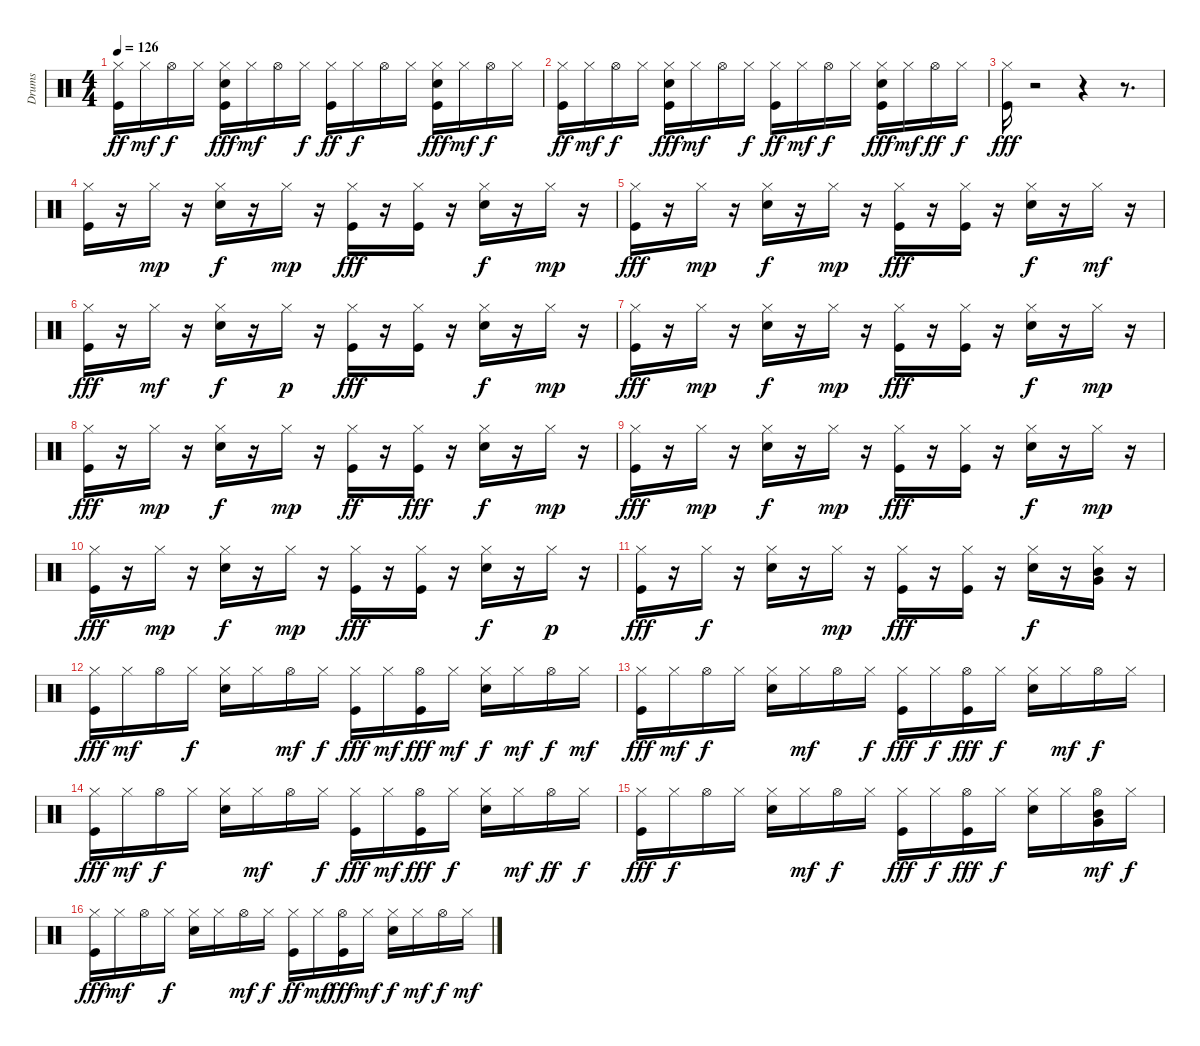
\track ("Drums" "Drums") {instrument percussion}
\staff {score}
\articulation defaults
\ts (4 4)
\tempo 126
\clef neutral
\ks c
("Kick (hit)" "Hi-Hat (closed)").16{dy ff} "Hi-Hat (closed)".16{dy mf} "Hi-Hat (open)".16{dy f} "Hi-Hat (closed)".16 ("Kick (hit)" "Electric Snare (hit)" "Hi-Hat (closed)").16{dy fff} "Hi-Hat (closed)".16{dy mf} "Hi-Hat (open)".16 "Hi-Hat (closed)".16{dy f} ("Kick (hit)" "Hi-Hat (closed)").16{dy ff} "Hi-Hat (closed)".16{dy f} "Hi-Hat (open)".16 "Hi-Hat (closed)".16 ("Kick (hit)" "Electric Snare (hit)" "Hi-Hat (closed)").16{dy fff} "Hi-Hat (closed)".16{dy mf} "Hi-Hat (open)".16{dy f} "Hi-Hat (closed)".16 |
("Kick (hit)" "Hi-Hat (closed)").16{dy ff} "Hi-Hat (closed)".16{dy mf} "Hi-Hat (open)".16{dy f} "Hi-Hat (closed)".16 ("Kick (hit)" "Electric Snare (hit)" "Hi-Hat (closed)").16{dy fff} "Hi-Hat (closed)".16{dy mf} "Hi-Hat (open)".16 "Hi-Hat (closed)".16{dy f} ("Kick (hit)" "Hi-Hat (closed)").16{dy ff} "Hi-Hat (closed)".16{dy mf} "Hi-Hat (open)".16{dy f} "Hi-Hat (closed)".16 ("Kick (hit)" "Electric Snare (hit)" "Hi-Hat (closed)").16{dy fff} "Hi-Hat (closed)".16{dy mf} "Hi-Hat (open)".16{dy ff} "Hi-Hat (closed)".16{dy f} |
("Kick (hit)" "Hi-Hat (closed)").16{dy fff} r.2 r.4 r.8{d} |
("Kick (hit)" "Hi-Hat (closed)").16 r.16 "Hi-Hat (closed)".16{dy mp} r.16 ("Electric Snare (hit)" "Hi-Hat (closed)").16{dy f} r.16 "Hi-Hat (closed)".16{dy mp} r.16 ("Kick (hit)" "Hi-Hat (closed)").16{dy fff} r.16 ("Kick (hit)" "Hi-Hat (closed)").16 r.16 ("Electric Snare (hit)" "Hi-Hat (closed)").16{dy f} r.16 "Hi-Hat (closed)".16{dy mp} r.16 |
("Kick (hit)" "Hi-Hat (closed)").16{dy fff} r.16 "Hi-Hat (closed)".16{dy mp} r.16 ("Electric Snare (hit)" "Hi-Hat (closed)").16{dy f} r.16 "Hi-Hat (closed)".16{dy mp} r.16 ("Kick (hit)" "Hi-Hat (closed)").16{dy fff} r.16 ("Kick (hit)" "Hi-Hat (closed)").16 r.16 ("Electric Snare (hit)" "Hi-Hat (closed)").16{dy f} r.16 "Hi-Hat (closed)".16{dy mf} r.16 |
("Kick (hit)" "Hi-Hat (closed)").16{dy fff} r.16 "Hi-Hat (closed)".16{dy mf} r.16 ("Electric Snare (hit)" "Hi-Hat (closed)").16{dy f} r.16 "Hi-Hat (closed)".16{dy p} r.16 ("Kick (hit)" "Hi-Hat (closed)").16{dy fff} r.16 ("Kick (hit)" "Hi-Hat (closed)").16 r.16 ("Electric Snare (hit)" "Hi-Hat (closed)").16{dy f} r.16 "Hi-Hat (closed)".16{dy mp} r.16 |
("Kick (hit)" "Hi-Hat (closed)").16{dy fff} r.16 "Hi-Hat (closed)".16{dy mp} r.16 ("Electric Snare (hit)" "Hi-Hat (closed)").16{dy f} r.16 "Hi-Hat (closed)".16{dy mp} r.16 ("Kick (hit)" "Hi-Hat (closed)").16{dy fff} r.16 ("Kick (hit)" "Hi-Hat (closed)").16 r.16 ("Electric Snare (hit)" "Hi-Hat (closed)").16{dy f} r.16 "Hi-Hat (closed)".16{dy mp} r.16 |
("Kick (hit)" "Hi-Hat (closed)").16{dy fff} r.16 "Hi-Hat (closed)".16{dy mp} r.16 ("Electric Snare (hit)" "Hi-Hat (closed)").16{dy f} r.16 "Hi-Hat (closed)".16{dy mp} r.16 ("Kick (hit)" "Hi-Hat (closed)").16{dy ff} r.16 ("Kick (hit)" "Hi-Hat (closed)").16{dy fff} r.16 ("Electric Snare (hit)" "Hi-Hat (closed)").16{dy f} r.16 "Hi-Hat (closed)".16{dy mp} r.16 |
("Kick (hit)" "Hi-Hat (closed)").16{dy fff} r.16 "Hi-Hat (closed)".16{dy mp} r.16 ("Electric Snare (hit)" "Hi-Hat (closed)").16{dy f} r.16 "Hi-Hat (closed)".16{dy mp} r.16 ("Kick (hit)" "Hi-Hat (closed)").16{dy fff} r.16 ("Kick (hit)" "Hi-Hat (closed)").16 r.16 ("Electric Snare (hit)" "Hi-Hat (closed)").16{dy f} r.16 "Hi-Hat (closed)".16{dy mp} r.16 |
("Kick (hit)" "Hi-Hat (closed)").16{dy fff} r.16 "Hi-Hat (closed)".16{dy mp} r.16 ("Electric Snare (hit)" "Hi-Hat (closed)").16{dy f} r.16 "Hi-Hat (closed)".16{dy mp} r.16 ("Kick (hit)" "Hi-Hat (closed)").16{dy fff} r.16 ("Kick (hit)" "Hi-Hat (closed)").16 r.16 ("Electric Snare (hit)" "Hi-Hat (closed)").16{dy f} r.16 "Hi-Hat (closed)".16{dy p} r.16 |
("Kick (hit)" "Hi-Hat (closed)").16{dy fff} r.16 "Hi-Hat (closed)".16{dy f} r.16 ("Electric Snare (hit)" "Hi-Hat (closed)").16 r.16 "Hi-Hat (closed)".16{dy mp} r.16 ("Kick (hit)" "Hi-Hat (closed)").16{dy fff} r.16 ("Kick (hit)" "Hi-Hat (closed)").16 r.16 ("Electric Snare (hit)" "Hi-Hat (closed)").16{dy f} r.16 ("Hi-Hat (closed)" "Very Low Tom (hit)" "Mid Tom (hit)").16 r.16 |
("Kick (hit)" "Hi-Hat (closed)").16{dy fff} "Hi-Hat (closed)".16{dy mf} "Hi-Hat (open)".16 "Hi-Hat (closed)".16{dy f} ("Electric Snare (hit)" "Hi-Hat (closed)").16 "Hi-Hat (closed)".16 "Hi-Hat (open)".16{dy mf} "Hi-Hat (closed)".16{dy f} ("Kick (hit)" "Hi-Hat (closed)").16{dy fff} "Hi-Hat (closed)".16{dy mf} ("Kick (hit)" "Hi-Hat (open)").16{dy fff} "Hi-Hat (closed)".16{dy mf} ("Electric Snare (hit)" "Hi-Hat (closed)").16{dy f} "Hi-Hat (closed)".16{dy mf} "Hi-Hat (open)".16{dy f} "Hi-Hat (closed)".16{dy mf} |
("Kick (hit)" "Hi-Hat (closed)").16{dy fff} "Hi-Hat (closed)".16{dy mf} "Hi-Hat (open)".16{dy f} "Hi-Hat (closed)".16 ("Electric Snare (hit)" "Hi-Hat (closed)").16 "Hi-Hat (closed)".16{dy mf} "Hi-Hat (open)".16 "Hi-Hat (closed)".16{dy f} ("Kick (hit)" "Hi-Hat (closed)").16{dy fff} "Hi-Hat (closed)".16{dy f} ("Kick (hit)" "Hi-Hat (open)").16{dy fff} "Hi-Hat (closed)".16{dy f} ("Electric Snare (hit)" "Hi-Hat (closed)").16 "Hi-Hat (closed)".16{dy mf} "Hi-Hat (open)".16{dy f} "Hi-Hat (closed)".16 |
("Kick (hit)" "Hi-Hat (closed)").16{dy fff} "Hi-Hat (closed)".16{dy mf} "Hi-Hat (open)".16{dy f} "Hi-Hat (closed)".16 ("Electric Snare (hit)" "Hi-Hat (closed)").16 "Hi-Hat (closed)".16{dy mf} "Hi-Hat (open)".16 "Hi-Hat (closed)".16{dy f} ("Kick (hit)" "Hi-Hat (closed)").16{dy fff} "Hi-Hat (closed)".16{dy mf} ("Kick (hit)" "Hi-Hat (open)").16{dy fff} "Hi-Hat (closed)".16{dy f} ("Electric Snare (hit)" "Hi-Hat (closed)").16 "Hi-Hat (closed)".16{dy mf} "Hi-Hat (open)".16{dy ff} "Hi-Hat (closed)".16{dy f} |
("Kick (hit)" "Hi-Hat (closed)").16{dy fff} "Hi-Hat (closed)".16{dy f} "Hi-Hat (open)".16 "Hi-Hat (closed)".16 ("Electric Snare (hit)" "Hi-Hat (closed)").16 "Hi-Hat (closed)".16{dy mf} "Hi-Hat (open)".16{dy f} "Hi-Hat (closed)".16 ("Kick (hit)" "Hi-Hat (closed)").16{dy fff} "Hi-Hat (closed)".16{dy f} ("Kick (hit)" "Hi-Hat (open)").16{dy fff} "Hi-Hat (closed)".16{dy f} ("Electric Snare (hit)" "Hi-Hat (closed)").16 "Hi-Hat (closed)".16 ("Very Low Tom (hit)" "Hi-Hat (open)" "Mid Tom (hit)").16{dy mf} "Hi-Hat (closed)".16{dy f} |
("Kick (hit)" "Hi-Hat (closed)").16{dy fff} "Hi-Hat (closed)".16{dy mf} "Hi-Hat (open)".16 "Hi-Hat (closed)".16{dy f} ("Electric Snare (hit)" "Hi-Hat (closed)").16 "Hi-Hat (closed)".16 "Hi-Hat (open)".16{dy mf} "Hi-Hat (closed)".16{dy f} ("Kick (hit)" "Hi-Hat (closed)").16{dy ff} "Hi-Hat (closed)".16{dy mf} ("Kick (hit)" "Hi-Hat (open)").16{dy fff} "Hi-Hat (closed)".16{dy mf} ("Electric Snare (hit)" "Hi-Hat (closed)").16{dy f} "Hi-Hat (closed)".16{dy mf} "Hi-Hat (open)".16{dy f} "Hi-Hat (closed)".16{dy mf}
